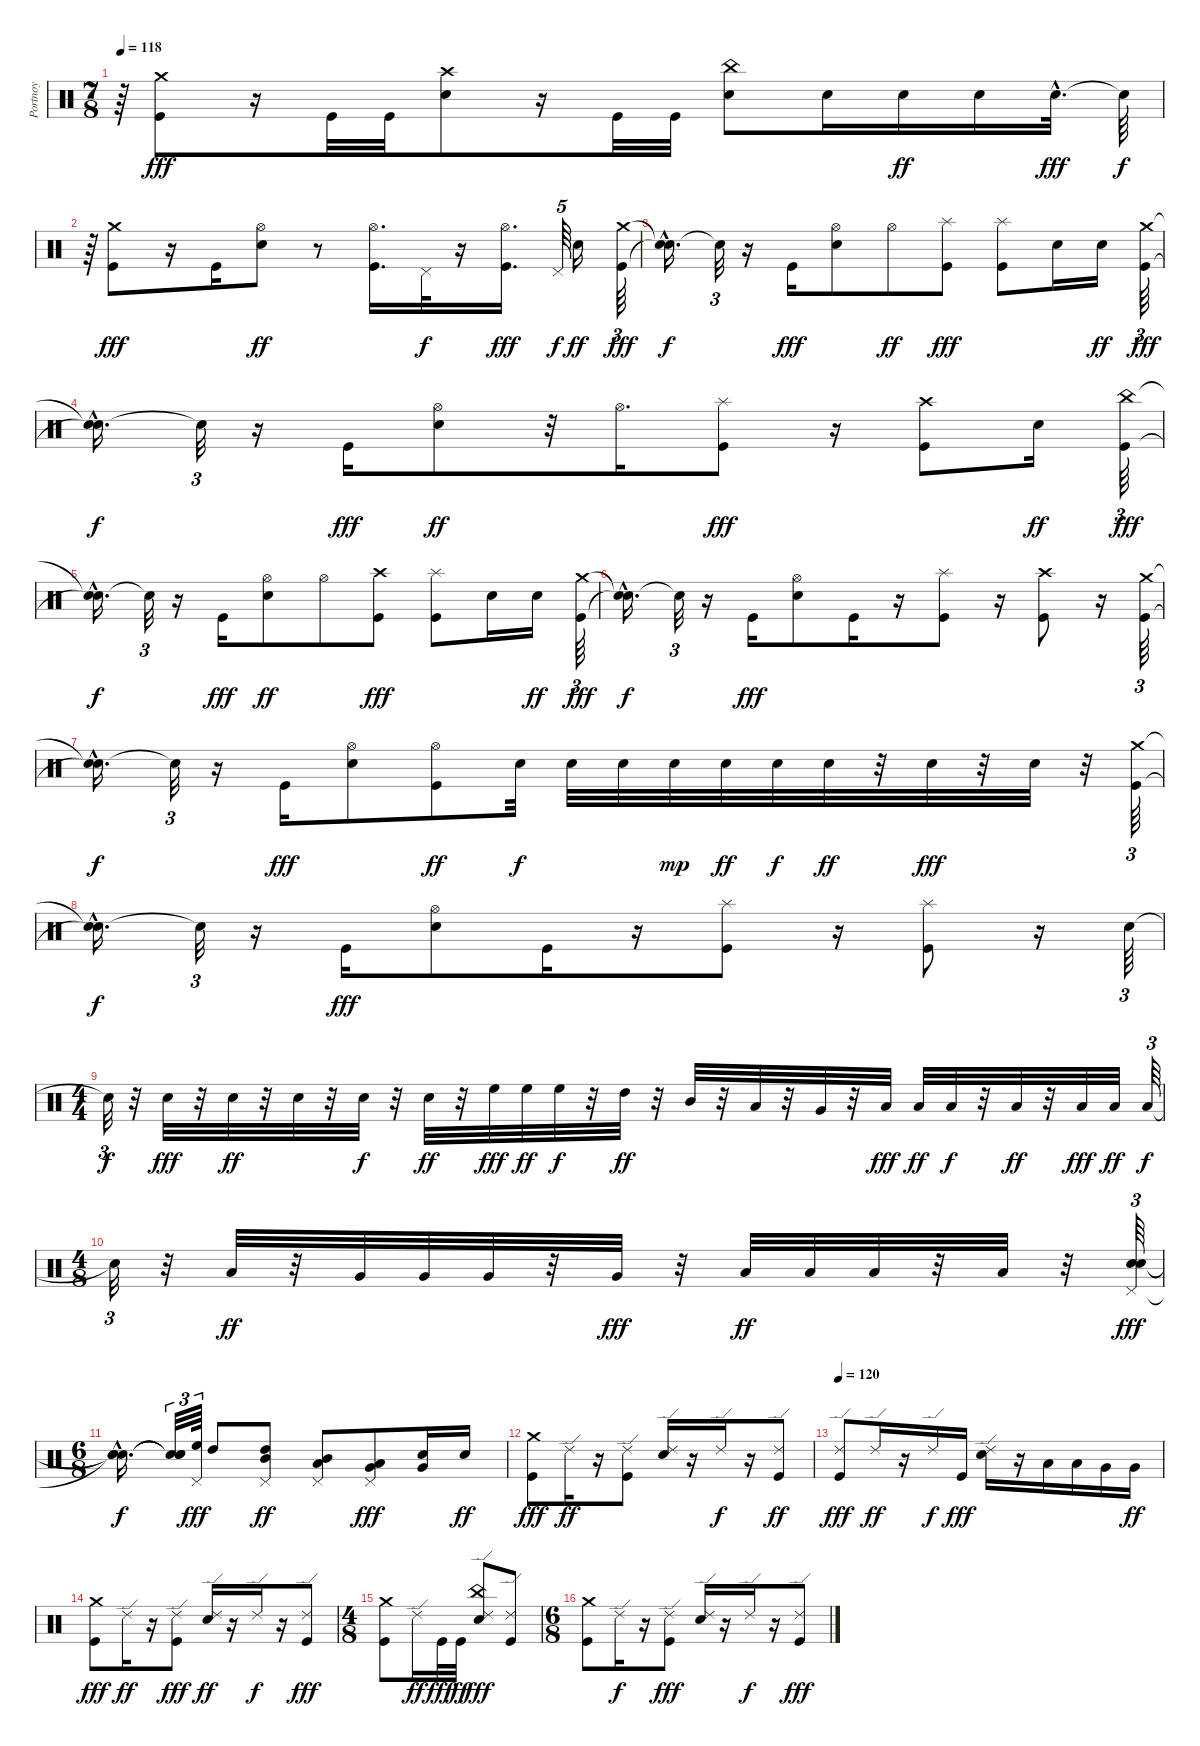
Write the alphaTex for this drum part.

\track ("Portnoy" "Portnoy") {instrument percussion}
\staff {score}
\articulation defaults
\ts (7 8)
\tempo 118
\clef neutral
\ks c
r.64{dy fff} ("Crash medium (hit)" "Kick (hit)").8 r.16 "Kick (hit)".32 "Kick (hit)".32 ("Crash high (hit)" "Snare (hit) 2").8 r.16 "Kick (hit)".32 "Kick (hit)".32 ("Snare (hit) 2" "China (hit)").8 "Snare (hit) 2".16 "Snare (hit) 2".16{dy ff} "Snare (hit) 2".16 "Snare (hit) 2"{hac}.32{d dy fff} "Snare (hit)"{t}.64{dy f} |
r.64 ("Crash medium (hit)" "Kick (hit)").8{dy fff} r.16 "Kick (hit)".16 ("Snare (hit) 2" "Hi-Hat (open)").8{dy ff} r.8 ("Kick (hit)" "Hi-Hat (open)").16{d} "Pedal Hi-Hat (hit)".32{dy f} r.16 ("Hi-Hat (open)" "Kick (hit)").16{d dy fff} "Pedal Hi-Hat (hit)".64{tu (5 4) dy f} "Snare (hit) 2".16{dy ff} ("Kick (hit)" "Crash medium (hit)").64{tu (3 2) dy fff} |
("Snare (hit)"{hac t} "Snare (hit)"{hac t}).16{d dy f} "Snare (hit)"{t}.32{tu (3 2)} r.16 "Kick (hit)".16{dy fff} ("Hi-Hat (open)" "Snare (hit) 2").8 "Hi-Hat (open)".8{dy ff} ("Splash (hit)" "Kick (hit)").8{dy fff} ("Splash (hit)" "Kick (hit)").8 "Snare (hit) 2".16 "Snare (hit) 2".16{dy ff} ("Crash medium (hit)" "Kick (hit)").64{tu (3 2) dy fff} |
("Snare (hit)"{hac t} "Snare (hit)"{hac t}).16{d dy f} "Snare (hit)"{t}.32{tu (3 2)} r.16 "Kick (hit)".16{dy fff} ("Snare (hit) 2" "Hi-Hat (open)").8{dy ff} r.32 "Hi-Hat (open)".16{d} ("Kick (hit)" "Splash (hit)").8{dy fff} r.16 ("Kick (hit)" "Crash high (hit)").8 "Snare (hit) 2".16{dy ff} ("China (hit)" "Kick (hit)").64{tu (3 2) dy fff} |
("Snare (hit)"{hac t} "Snare (hit)"{hac t}).16{d dy f} "Snare (hit)"{t}.32{tu (3 2)} r.16 "Kick (hit)".16{dy fff} ("Snare (hit) 2" "Hi-Hat (open)").8{dy ff} "Hi-Hat (open)".8 ("Crash high (hit)" "Kick (hit)").8{dy fff} ("Splash (hit)" "Kick (hit)").8 "Snare (hit) 2".16 "Snare (hit) 2".16{dy ff} ("Kick (hit)" "Crash medium (hit)").64{tu (3 2) dy fff} |
("Snare (hit)"{hac t} "Snare (hit)"{hac t}).16{d dy f} "Snare (hit)"{t}.32{tu (3 2)} r.16 "Kick (hit)".16{dy fff} ("Snare (hit) 2" "Hi-Hat (open)").8 "Kick (hit)".16 r.16 ("Kick (hit)" "Splash (hit)").8 r.16 ("Kick (hit)" "Crash high (hit)").8 r.16 ("Crash medium (hit)" "Kick (hit)").64{tu (3 2)} |
("Snare (hit)"{hac t} "Snare (hit)"{hac t}).16{d dy f} "Snare (hit)"{t}.32{tu (3 2)} r.16 "Kick (hit)".16{dy fff} ("Snare (hit) 2" "Hi-Hat (open)").8 ("Kick (hit)" "Hi-Hat (open)").8{dy ff} "Snare (hit) 2".32{dy f} "Snare (hit) 2".32 "Snare (hit) 2".32 "Snare (hit) 2".32{dy mp} "Snare (hit) 2".32{dy ff} "Snare (hit) 2".32{dy f} "Snare (hit) 2".32{dy ff} r.32 "Snare (hit) 2".32{dy fff} r.32 "Snare (hit) 2".32 r.32 ("Crash medium (hit)" "Kick (hit)").64{tu (3 2)} |
("Snare (hit)"{hac t} "Snare (hit)"{hac t}).16{d dy f} "Snare (hit)"{t}.32{tu (3 2)} r.16 "Kick (hit)".16{dy fff} ("Hi-Hat (open)" "Snare (hit) 2").8 "Kick (hit)".16 r.16 ("Splash (hit)" "Kick (hit)").8 r.16 ("Splash (hit)" "Kick (hit)").8 r.16 "Snare (hit) 2".64{tu (3 2)} |
\ts (4 4)
"Snare (hit)"{t}.32{tu (3 2) dy f} r.32 "Snare (hit) 2".32{dy fff} r.32 "Snare (hit) 2".32{dy ff} r.32 "Snare (hit) 2".32 r.32 "Snare (hit) 2".32{dy f} r.32 "Snare (hit) 2".32{dy ff} r.32 "High Floor Tom (hit)".32{dy fff} "High Floor Tom (hit)".32{dy ff} "High Floor Tom (hit)".32{dy f} r.32 "High Tom (hit)".32{dy ff} r.32 "Mid Tom (hit)".32 r.32 "Low Tom (hit)".32 r.32 "Very Low Tom (hit)".32 r.32 "Low Floor Tom (hit)".32{dy fff} "Low Floor Tom (hit)".32{dy ff} "Low Floor Tom (hit)".32{dy f} r.32 "Low Floor Tom (hit)".32{dy ff} r.32 "Low Tom (hit)".32{dy fff} "Low Tom (hit)".32{dy ff} "Low Tom (hit)".64{tu (3 2) dy f} |
\ts (4 8)
"Snare (hit)"{t}.32{tu (3 2)} r.32 "Low Tom (hit)".32{dy ff} r.32 "Very Low Tom (hit)".32 "Very Low Tom (hit)".32 "Very Low Tom (hit)".32 r.32 "Very Low Tom (hit)".32{dy fff} r.32 "Low Floor Tom (hit)".32{dy ff} "Low Floor Tom (hit)".32 "Low Floor Tom (hit)".32 r.32 "Low Floor Tom (hit)".32 r.32 ("Snare (hit) 2" "Pedal Hi-Hat (hit)" "Snare (hit) 2").64{tu (3 2) dy fff} |
\ts (6 8)
("Snare (hit)"{hac t} "Snare (hit)"{hac t} "Snare (hit)"{hac t}).16{d dy f} ("Snare (hit)"{t} "Snare (hit)"{t} "Snare (hit)"{t}).32{tu (3 2)} ("Pedal Hi-Hat (hit)" "High Floor Tom (hit)").64{tu (3 2) dy fff} "High Tom (hit)".8 ("Pedal Hi-Hat (hit)" "High Tom (hit)" "Mid Tom (hit)").8{dy ff} ("Mid Tom (hit)" "Pedal Hi-Hat (hit)" "Low Tom (hit)").8 ("Low Tom (hit)" "Pedal Hi-Hat (hit)" "Very Low Tom (hit)").8{dy fff} ("Snare (hit) 2" "Very Low Tom (hit)").16 "Snare (hit) 2".16{dy ff} |
("Kick (hit)" "Crash medium (hit)").8{dy fff} "Ride (edge) 2".16{dy ff} r.16 ("Kick (hit)" "Ride (edge) 2").8 ("Snare (hit) 2" "Ride (edge) 2").16 r.16 "Ride (edge) 2".16{dy f} r.16 ("Kick (hit)" "Ride (edge) 2").8{dy ff} |
\tempo 120
("Ride (edge) 2" "Kick (hit)").8{dy fff} "Ride (edge) 2".16{dy ff} r.16 "Ride (edge) 2".16{dy f} "Kick (hit)".16{dy fff} ("Ride (edge) 2" "Snare (hit) 2").16 r.16 "Low Tom (hit)".16 "Low Tom (hit)".16 "Very Low Tom (hit)".16 "Very Low Tom (hit)".16{dy ff} |
("Crash medium (hit)" "Kick (hit)").8{dy fff} "Ride (edge) 2".16{dy ff} r.16 ("Ride (edge) 2" "Kick (hit)").8{dy fff} ("Snare (hit) 2" "Ride (edge) 2").16{dy ff} r.16 "Ride (edge) 2".16{dy f} r.16 ("Ride (edge) 2" "Kick (hit)").8{dy fff} |
\ts (4 8)
("Kick (hit)" "Crash medium (hit)").8 "Ride (edge) 2".16{dy ff} "Kick (hit)".32{dy fff} "Kick (hit)".32{dy ff} ("Ride (edge) 2" "Snare (hit) 2" "China (hit)").8{dy fff} ("Ride (edge) 2" "Kick (hit)").8 |
\ts (6 8)
("Crash medium (hit)" "Kick (hit)").8 "Ride (edge) 2".16{dy f} r.16 ("Ride (edge) 2" "Kick (hit)").8{dy fff} ("Ride (edge) 2" "Snare (hit) 2").16 r.16 "Ride (edge) 2".16{dy f} r.16 ("Ride (edge) 2" "Kick (hit)").8{dy fff}
